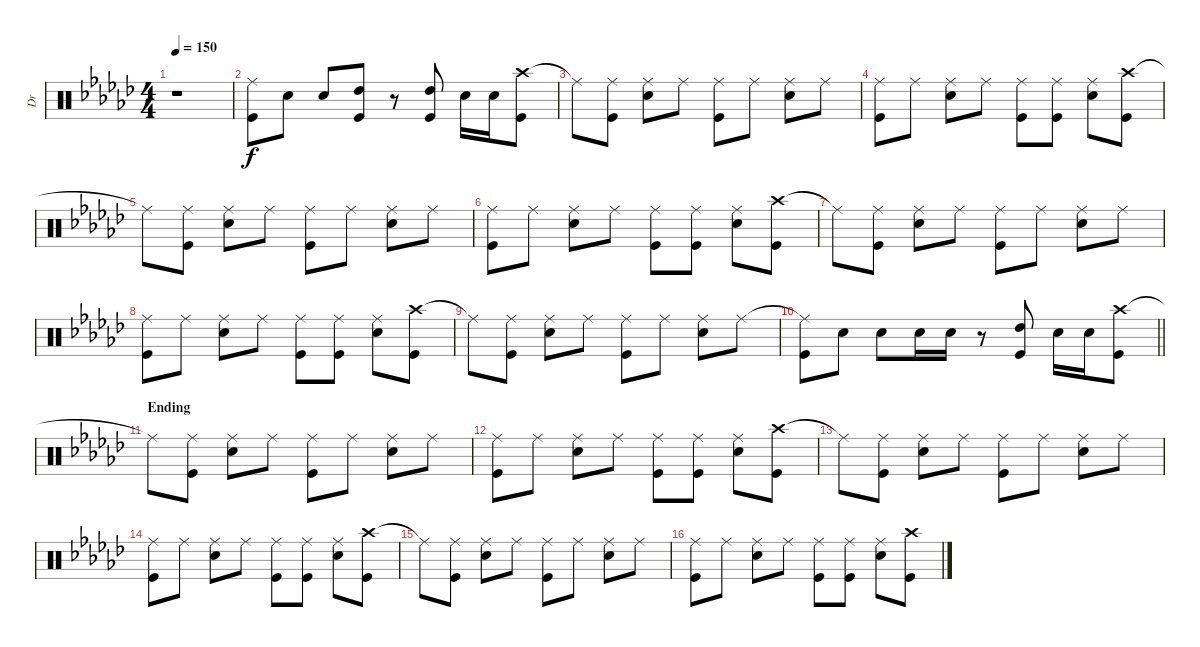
\track ("Dr" "Dr") {instrument percussion}
\staff {score}
\articulation defaults
\ts (4 4)
\tempo 150
\clef neutral
\ks gb
r.1{dy f} |
("Ride (middle)" "Kick (hit)").8 "Electric Snare (hit)".8 "Electric Snare (hit)".8 ("High Tom (hit)" "Kick (hit)").8 r.8 ("High Tom (hit)" "Kick (hit)").8 "Electric Snare (hit)".16 "Electric Snare (hit)".16 ("Crash high (hit)" "Kick (hit)").8 |
"Ride (middle)"{t}.8 ("Ride (middle)" "Kick (hit)").8 ("Ride (middle)" "Electric Snare (hit)").8 "Ride (middle)".8 ("Ride (middle)" "Kick (hit)").8 "Ride (middle)".8 ("Ride (middle)" "Electric Snare (hit)").8 "Ride (middle)".8 |
("Ride (middle)" "Kick (hit)").8 "Ride (middle)".8 ("Ride (middle)" "Electric Snare (hit)").8 "Ride (middle)".8 ("Ride (middle)" "Kick (hit)").8 ("Ride (middle)" "Kick (hit)").8 ("Ride (middle)" "Electric Snare (hit)").8 ("Crash high (hit)" "Kick (hit)").8 |
"Ride (middle)"{t}.8 ("Ride (middle)" "Kick (hit)").8 ("Ride (middle)" "Electric Snare (hit)").8 "Ride (middle)".8 ("Ride (middle)" "Kick (hit)").8 "Ride (middle)".8 ("Ride (middle)" "Electric Snare (hit)").8 "Ride (middle)".8 |
("Ride (middle)" "Kick (hit)").8 "Ride (middle)".8 ("Ride (middle)" "Electric Snare (hit)").8 "Ride (middle)".8 ("Ride (middle)" "Kick (hit)").8 ("Ride (middle)" "Kick (hit)").8 ("Ride (middle)" "Electric Snare (hit)").8 ("Crash high (hit)" "Kick (hit)").8 |
"Ride (middle)"{t}.8 ("Ride (middle)" "Kick (hit)").8 ("Ride (middle)" "Electric Snare (hit)").8 "Ride (middle)".8 ("Ride (middle)" "Kick (hit)").8 "Ride (middle)".8 ("Ride (middle)" "Electric Snare (hit)").8 "Ride (middle)".8 |
("Ride (middle)" "Kick (hit)").8 "Ride (middle)".8 ("Ride (middle)" "Electric Snare (hit)").8 "Ride (middle)".8 ("Ride (middle)" "Kick (hit)").8 ("Ride (middle)" "Kick (hit)").8 ("Ride (middle)" "Electric Snare (hit)").8 ("Crash high (hit)" "Kick (hit)").8 |
"Ride (middle)"{t}.8 ("Ride (middle)" "Kick (hit)").8 ("Ride (middle)" "Electric Snare (hit)").8 "Ride (middle)".8 ("Ride (middle)" "Kick (hit)").8 "Ride (middle)".8 ("Ride (middle)" "Electric Snare (hit)").8 "Ride (middle)".8 |
\barLineRight lightlight
("Ride (middle)"{t} "Kick (hit)").8 "Electric Snare (hit)".8 "Electric Snare (hit)".8 "Electric Snare (hit)".16 "Electric Snare (hit)".16 r.8 ("High Tom (hit)" "Kick (hit)").8 "Electric Snare (hit)".16 "Electric Snare (hit)".16 ("Crash high (hit)" "Kick (hit)").8 |
\section ("" "Ending")
"Ride (middle)"{t}.8 ("Ride (middle)" "Kick (hit)").8 ("Ride (middle)" "Electric Snare (hit)").8 "Ride (middle)".8 ("Ride (middle)" "Kick (hit)").8 "Ride (middle)".8 ("Ride (middle)" "Electric Snare (hit)").8 "Ride (middle)".8 |
("Ride (middle)" "Kick (hit)").8 "Ride (middle)".8 ("Ride (middle)" "Electric Snare (hit)").8 "Ride (middle)".8 ("Ride (middle)" "Kick (hit)").8 ("Ride (middle)" "Kick (hit)").8 ("Ride (middle)" "Electric Snare (hit)").8 ("Crash high (hit)" "Kick (hit)").8 |
"Ride (middle)"{t}.8 ("Ride (middle)" "Kick (hit)").8 ("Ride (middle)" "Electric Snare (hit)").8 "Ride (middle)".8 ("Ride (middle)" "Kick (hit)").8 "Ride (middle)".8 ("Ride (middle)" "Electric Snare (hit)").8 "Ride (middle)".8 |
("Ride (middle)" "Kick (hit)").8 "Ride (middle)".8 ("Ride (middle)" "Electric Snare (hit)").8 "Ride (middle)".8 ("Ride (middle)" "Kick (hit)").8 ("Ride (middle)" "Kick (hit)").8 ("Ride (middle)" "Electric Snare (hit)").8 ("Crash high (hit)" "Kick (hit)").8 |
"Ride (middle)"{t}.8 ("Ride (middle)" "Kick (hit)").8 ("Ride (middle)" "Electric Snare (hit)").8 "Ride (middle)".8 ("Ride (middle)" "Kick (hit)").8 "Ride (middle)".8 ("Ride (middle)" "Electric Snare (hit)").8 "Ride (middle)".8 |
("Ride (middle)" "Kick (hit)").8 "Ride (middle)".8 ("Ride (middle)" "Electric Snare (hit)").8 "Ride (middle)".8 ("Ride (middle)" "Kick (hit)").8 ("Ride (middle)" "Kick (hit)").8 ("Ride (middle)" "Electric Snare (hit)").8 ("Crash high (hit)" "Kick (hit)").8
